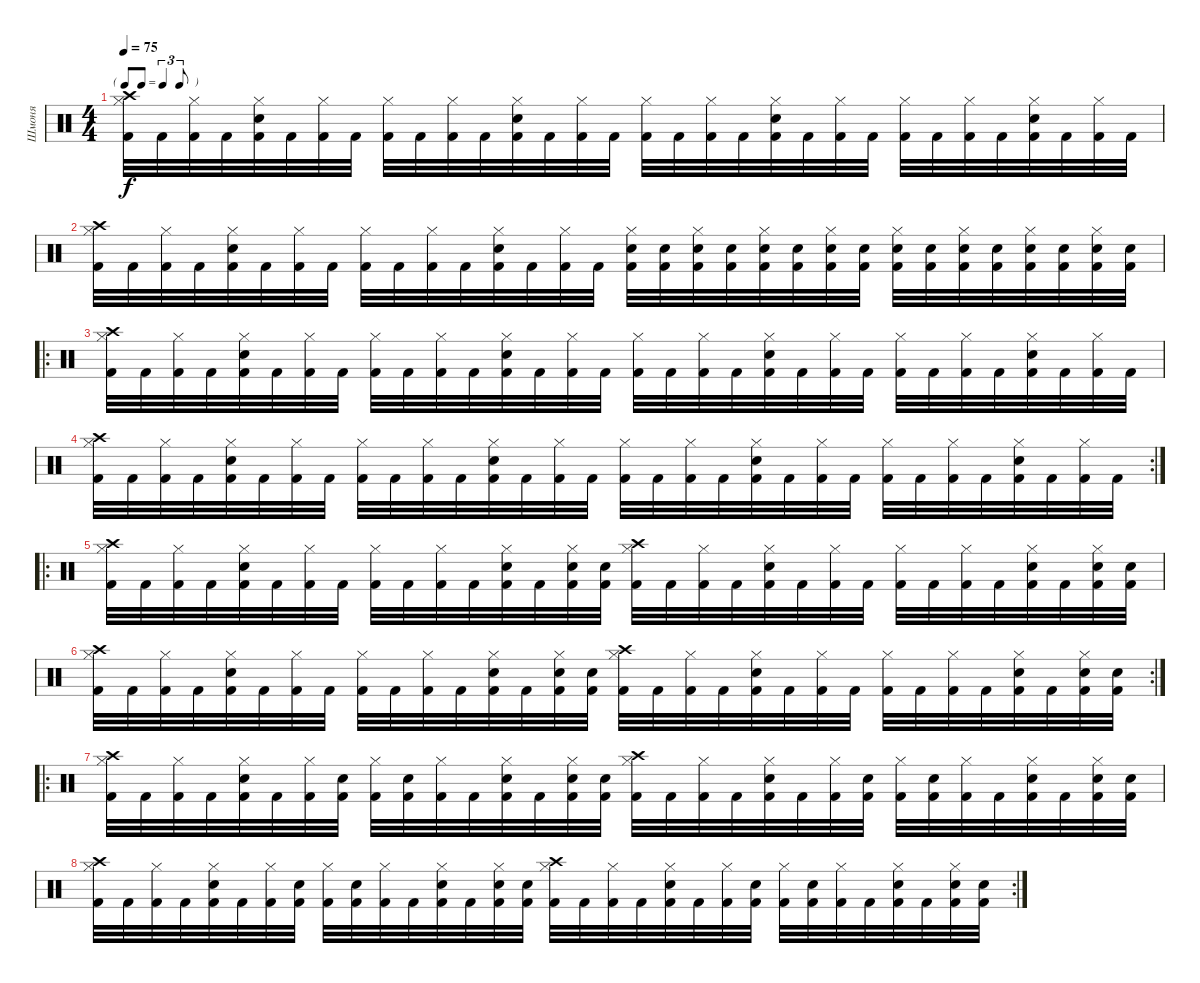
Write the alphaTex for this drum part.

\track ("Шмоня" "Шмоня") {instrument percussion}
\staff {score}
\articulation defaults
\ts (4 4)
\tf triplet8th
\tempo 75
\clef neutral
\ks c
("Hi-Hat (closed)" "Crash high (hit)" "Kick (hit) 2").32{dy f} "Kick (hit) 2".32 ("Hi-Hat (closed)" "Kick (hit) 2").32 "Kick (hit) 2".32 ("Hi-Hat (closed)" "Electric Snare (hit)" "Kick (hit) 2").32 "Kick (hit) 2".32 ("Hi-Hat (closed)" "Kick (hit) 2").32 "Kick (hit) 2".32 ("Hi-Hat (closed)" "Kick (hit) 2").32 "Kick (hit) 2".32 ("Hi-Hat (closed)" "Kick (hit) 2").32 "Kick (hit) 2".32 ("Hi-Hat (closed)" "Electric Snare (hit)" "Kick (hit) 2").32 "Kick (hit) 2".32 ("Hi-Hat (closed)" "Kick (hit) 2").32 "Kick (hit) 2".32 ("Hi-Hat (closed)" "Kick (hit) 2").32 "Kick (hit) 2".32 ("Hi-Hat (closed)" "Kick (hit) 2").32 "Kick (hit) 2".32 ("Hi-Hat (closed)" "Electric Snare (hit)" "Kick (hit) 2").32 "Kick (hit) 2".32 ("Hi-Hat (closed)" "Kick (hit) 2").32 "Kick (hit) 2".32 ("Hi-Hat (closed)" "Kick (hit) 2").32 "Kick (hit) 2".32 ("Hi-Hat (closed)" "Kick (hit) 2").32 "Kick (hit) 2".32 ("Hi-Hat (closed)" "Electric Snare (hit)" "Kick (hit) 2").32 "Kick (hit) 2".32 ("Hi-Hat (closed)" "Kick (hit) 2").32 "Kick (hit) 2".32 |
("Hi-Hat (closed)" "Crash high (hit)" "Kick (hit) 2").32 "Kick (hit) 2".32 ("Hi-Hat (closed)" "Kick (hit) 2").32 "Kick (hit) 2".32 ("Hi-Hat (closed)" "Electric Snare (hit)" "Kick (hit) 2").32 "Kick (hit) 2".32 ("Hi-Hat (closed)" "Kick (hit) 2").32 "Kick (hit) 2".32 ("Hi-Hat (closed)" "Kick (hit) 2").32 "Kick (hit) 2".32 ("Hi-Hat (closed)" "Kick (hit) 2").32 "Kick (hit) 2".32 ("Hi-Hat (closed)" "Electric Snare (hit)" "Kick (hit) 2").32 "Kick (hit) 2".32 ("Hi-Hat (closed)" "Kick (hit) 2").32 "Kick (hit) 2".32 ("Hi-Hat (closed)" "Electric Snare (hit)" "Kick (hit) 2").32 ("Electric Snare (hit)" "Kick (hit) 2").32 ("Hi-Hat (closed)" "Electric Snare (hit)" "Kick (hit) 2").32 ("Electric Snare (hit)" "Kick (hit) 2").32 ("Hi-Hat (closed)" "Electric Snare (hit)" "Kick (hit) 2").32 ("Electric Snare (hit)" "Kick (hit) 2").32 ("Hi-Hat (closed)" "Electric Snare (hit)" "Kick (hit) 2").32 ("Electric Snare (hit)" "Kick (hit) 2").32 ("Hi-Hat (closed)" "Electric Snare (hit)" "Kick (hit) 2").32 ("Electric Snare (hit)" "Kick (hit) 2").32 ("Hi-Hat (closed)" "Electric Snare (hit)" "Kick (hit) 2").32 ("Electric Snare (hit)" "Kick (hit) 2").32 ("Hi-Hat (closed)" "Electric Snare (hit)" "Kick (hit) 2").32 ("Electric Snare (hit)" "Kick (hit) 2").32 ("Hi-Hat (closed)" "Electric Snare (hit)" "Kick (hit) 2").32 ("Electric Snare (hit)" "Kick (hit) 2").32 |
\ro
("Hi-Hat (closed)" "Crash high (hit)" "Kick (hit) 2").32 "Kick (hit) 2".32 ("Hi-Hat (closed)" "Kick (hit) 2").32 "Kick (hit) 2".32 ("Hi-Hat (closed)" "Electric Snare (hit)" "Kick (hit) 2").32 "Kick (hit) 2".32 ("Hi-Hat (closed)" "Kick (hit) 2").32 "Kick (hit) 2".32 ("Hi-Hat (closed)" "Kick (hit) 2").32 "Kick (hit) 2".32 ("Hi-Hat (closed)" "Kick (hit) 2").32 "Kick (hit) 2".32 ("Hi-Hat (closed)" "Electric Snare (hit)" "Kick (hit) 2").32 "Kick (hit) 2".32 ("Hi-Hat (closed)" "Kick (hit) 2").32 "Kick (hit) 2".32 ("Hi-Hat (closed)" "Kick (hit) 2").32 "Kick (hit) 2".32 ("Hi-Hat (closed)" "Kick (hit) 2").32 "Kick (hit) 2".32 ("Hi-Hat (closed)" "Electric Snare (hit)" "Kick (hit) 2").32 "Kick (hit) 2".32 ("Hi-Hat (closed)" "Kick (hit) 2").32 "Kick (hit) 2".32 ("Hi-Hat (closed)" "Kick (hit) 2").32 "Kick (hit) 2".32 ("Hi-Hat (closed)" "Kick (hit) 2").32 "Kick (hit) 2".32 ("Hi-Hat (closed)" "Electric Snare (hit)" "Kick (hit) 2").32 "Kick (hit) 2".32 ("Hi-Hat (closed)" "Kick (hit) 2").32 "Kick (hit) 2".32 |
\rc 2
("Hi-Hat (closed)" "Crash high (hit)" "Kick (hit) 2").32 "Kick (hit) 2".32 ("Hi-Hat (closed)" "Kick (hit) 2").32 "Kick (hit) 2".32 ("Hi-Hat (closed)" "Electric Snare (hit)" "Kick (hit) 2").32 "Kick (hit) 2".32 ("Hi-Hat (closed)" "Kick (hit) 2").32 "Kick (hit) 2".32 ("Hi-Hat (closed)" "Kick (hit) 2").32 "Kick (hit) 2".32 ("Hi-Hat (closed)" "Kick (hit) 2").32 "Kick (hit) 2".32 ("Hi-Hat (closed)" "Electric Snare (hit)" "Kick (hit) 2").32 "Kick (hit) 2".32 ("Hi-Hat (closed)" "Kick (hit) 2").32 "Kick (hit) 2".32 ("Hi-Hat (closed)" "Kick (hit) 2").32 "Kick (hit) 2".32 ("Hi-Hat (closed)" "Kick (hit) 2").32 "Kick (hit) 2".32 ("Hi-Hat (closed)" "Electric Snare (hit)" "Kick (hit) 2").32 "Kick (hit) 2".32 ("Hi-Hat (closed)" "Kick (hit) 2").32 "Kick (hit) 2".32 ("Hi-Hat (closed)" "Kick (hit) 2").32 "Kick (hit) 2".32 ("Hi-Hat (closed)" "Kick (hit) 2").32 "Kick (hit) 2".32 ("Hi-Hat (closed)" "Electric Snare (hit)" "Kick (hit) 2").32 "Kick (hit) 2".32 ("Hi-Hat (closed)" "Kick (hit) 2").32 "Kick (hit) 2".32 |
\ro
("Hi-Hat (closed)" "Crash high (hit)" "Kick (hit) 2").32 "Kick (hit) 2".32 ("Hi-Hat (closed)" "Kick (hit) 2").32 "Kick (hit) 2".32 ("Hi-Hat (closed)" "Electric Snare (hit)" "Kick (hit) 2").32 "Kick (hit) 2".32 ("Hi-Hat (closed)" "Kick (hit) 2").32 "Kick (hit) 2".32 ("Hi-Hat (closed)" "Kick (hit) 2").32 "Kick (hit) 2".32 ("Hi-Hat (closed)" "Kick (hit) 2").32 "Kick (hit) 2".32 ("Hi-Hat (closed)" "Electric Snare (hit)" "Kick (hit) 2").32 "Kick (hit) 2".32 ("Hi-Hat (closed)" "Electric Snare (hit)" "Kick (hit) 2").32 ("Electric Snare (hit)" "Kick (hit) 2").32 ("Hi-Hat (closed)" "Crash high (hit)" "Kick (hit) 2").32 "Kick (hit) 2".32 ("Hi-Hat (closed)" "Kick (hit) 2").32 "Kick (hit) 2".32 ("Hi-Hat (closed)" "Electric Snare (hit)" "Kick (hit) 2").32 "Kick (hit) 2".32 ("Hi-Hat (closed)" "Kick (hit) 2").32 "Kick (hit) 2".32 ("Hi-Hat (closed)" "Kick (hit) 2").32 "Kick (hit) 2".32 ("Hi-Hat (closed)" "Kick (hit) 2").32 "Kick (hit) 2".32 ("Hi-Hat (closed)" "Electric Snare (hit)" "Kick (hit) 2").32 "Kick (hit) 2".32 ("Hi-Hat (closed)" "Electric Snare (hit)" "Kick (hit) 2").32 ("Electric Snare (hit)" "Kick (hit) 2").32 |
\rc 2
("Hi-Hat (closed)" "Crash high (hit)" "Kick (hit) 2").32 "Kick (hit) 2".32 ("Hi-Hat (closed)" "Kick (hit) 2").32 "Kick (hit) 2".32 ("Hi-Hat (closed)" "Electric Snare (hit)" "Kick (hit) 2").32 "Kick (hit) 2".32 ("Hi-Hat (closed)" "Kick (hit) 2").32 "Kick (hit) 2".32 ("Hi-Hat (closed)" "Kick (hit) 2").32 "Kick (hit) 2".32 ("Hi-Hat (closed)" "Kick (hit) 2").32 "Kick (hit) 2".32 ("Hi-Hat (closed)" "Electric Snare (hit)" "Kick (hit) 2").32 "Kick (hit) 2".32 ("Hi-Hat (closed)" "Electric Snare (hit)" "Kick (hit) 2").32 ("Electric Snare (hit)" "Kick (hit) 2").32 ("Hi-Hat (closed)" "Crash high (hit)" "Kick (hit) 2").32 "Kick (hit) 2".32 ("Hi-Hat (closed)" "Kick (hit) 2").32 "Kick (hit) 2".32 ("Hi-Hat (closed)" "Electric Snare (hit)" "Kick (hit) 2").32 "Kick (hit) 2".32 ("Hi-Hat (closed)" "Kick (hit) 2").32 "Kick (hit) 2".32 ("Hi-Hat (closed)" "Kick (hit) 2").32 "Kick (hit) 2".32 ("Hi-Hat (closed)" "Kick (hit) 2").32 "Kick (hit) 2".32 ("Hi-Hat (closed)" "Electric Snare (hit)" "Kick (hit) 2").32 "Kick (hit) 2".32 ("Hi-Hat (closed)" "Electric Snare (hit)" "Kick (hit) 2").32 ("Electric Snare (hit)" "Kick (hit) 2").32 |
\ro
("Hi-Hat (closed)" "Crash high (hit)" "Kick (hit) 2").32 "Kick (hit) 2".32 ("Hi-Hat (closed)" "Kick (hit) 2").32 "Kick (hit) 2".32 ("Hi-Hat (closed)" "Electric Snare (hit)" "Kick (hit) 2").32 "Kick (hit) 2".32 ("Hi-Hat (closed)" "Kick (hit) 2").32 ("Electric Snare (hit)" "Kick (hit) 2").32 ("Hi-Hat (closed)" "Kick (hit) 2").32 ("Electric Snare (hit)" "Kick (hit) 2").32 ("Hi-Hat (closed)" "Kick (hit) 2").32 "Kick (hit) 2".32 ("Hi-Hat (closed)" "Electric Snare (hit)" "Kick (hit) 2").32 "Kick (hit) 2".32 ("Hi-Hat (closed)" "Electric Snare (hit)" "Kick (hit) 2").32 ("Electric Snare (hit)" "Kick (hit) 2").32 ("Hi-Hat (closed)" "Crash high (hit)" "Kick (hit) 2").32 "Kick (hit) 2".32 ("Hi-Hat (closed)" "Kick (hit) 2").32 "Kick (hit) 2".32 ("Hi-Hat (closed)" "Electric Snare (hit)" "Kick (hit) 2").32 "Kick (hit) 2".32 ("Hi-Hat (closed)" "Kick (hit) 2").32 ("Electric Snare (hit)" "Kick (hit) 2").32 ("Hi-Hat (closed)" "Kick (hit) 2").32 ("Electric Snare (hit)" "Kick (hit) 2").32 ("Hi-Hat (closed)" "Kick (hit) 2").32 "Kick (hit) 2".32 ("Hi-Hat (closed)" "Electric Snare (hit)" "Kick (hit) 2").32 "Kick (hit) 2".32 ("Hi-Hat (closed)" "Electric Snare (hit)" "Kick (hit) 2").32 ("Electric Snare (hit)" "Kick (hit) 2").32 |
\rc 2
("Hi-Hat (closed)" "Crash high (hit)" "Kick (hit) 2").32 "Kick (hit) 2".32 ("Hi-Hat (closed)" "Kick (hit) 2").32 "Kick (hit) 2".32 ("Hi-Hat (closed)" "Electric Snare (hit)" "Kick (hit) 2").32 "Kick (hit) 2".32 ("Hi-Hat (closed)" "Kick (hit) 2").32 ("Electric Snare (hit)" "Kick (hit) 2").32 ("Hi-Hat (closed)" "Kick (hit) 2").32 ("Electric Snare (hit)" "Kick (hit) 2").32 ("Hi-Hat (closed)" "Kick (hit) 2").32 "Kick (hit) 2".32 ("Hi-Hat (closed)" "Electric Snare (hit)" "Kick (hit) 2").32 "Kick (hit) 2".32 ("Hi-Hat (closed)" "Electric Snare (hit)" "Kick (hit) 2").32 ("Electric Snare (hit)" "Kick (hit) 2").32 ("Hi-Hat (closed)" "Crash high (hit)" "Kick (hit) 2").32 "Kick (hit) 2".32 ("Hi-Hat (closed)" "Kick (hit) 2").32 "Kick (hit) 2".32 ("Hi-Hat (closed)" "Electric Snare (hit)" "Kick (hit) 2").32 "Kick (hit) 2".32 ("Hi-Hat (closed)" "Kick (hit) 2").32 ("Electric Snare (hit)" "Kick (hit) 2").32 ("Hi-Hat (closed)" "Kick (hit) 2").32 ("Electric Snare (hit)" "Kick (hit) 2").32 ("Hi-Hat (closed)" "Kick (hit) 2").32 "Kick (hit) 2".32 ("Hi-Hat (closed)" "Electric Snare (hit)" "Kick (hit) 2").32 "Kick (hit) 2".32 ("Hi-Hat (closed)" "Electric Snare (hit)" "Kick (hit) 2").32 ("Electric Snare (hit)" "Kick (hit) 2").32
